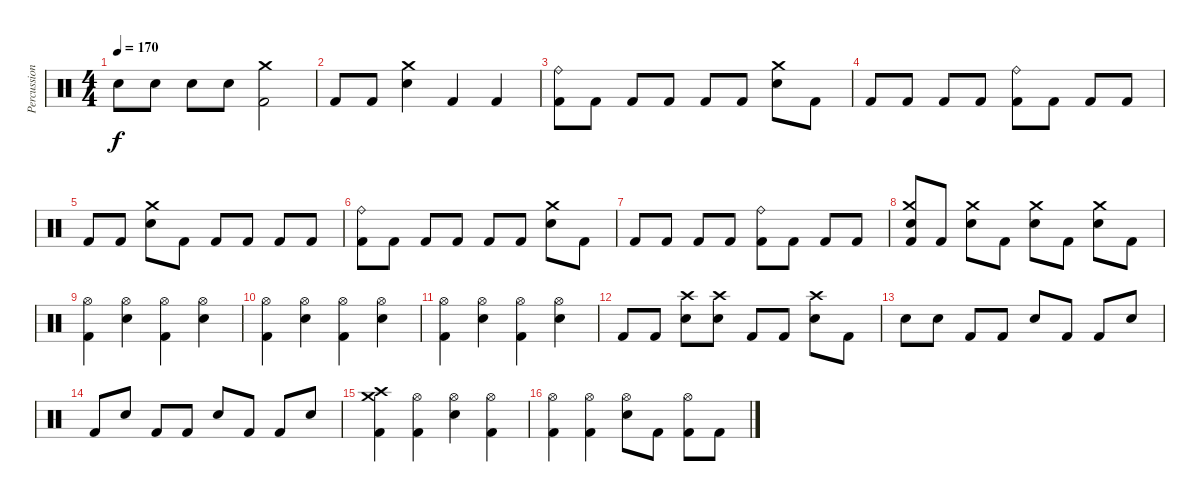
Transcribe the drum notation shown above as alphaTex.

\track ("Percussion" "Percussion") {instrument percussion}
\staff {score}
\articulation defaults
\ts (4 4)
\tempo 170
\clef neutral
\ks c "Snare (hit) 2".8{dy f} "Snare (hit) 2".8 "Snare (hit) 2".8 "Snare (hit) 2".8
("Crash medium (hit)" "Kick (hit) 2").2 |
"Kick (hit) 2".8 "Kick (hit) 2".8 ("Crash medium (hit)" "Snare (hit) 2").4 "Kick (hit) 2".4 "Kick (hit) 2".4 |
("Ride (bell)" "Kick (hit) 2").8 "Kick (hit) 2".8 "Kick (hit) 2".8 "Kick (hit) 2".8 "Kick (hit) 2".8 "Kick (hit) 2".8 ("Crash medium (hit)" "Snare (hit) 2").8 "Kick (hit) 2".8 |
"Kick (hit) 2".8 "Kick (hit) 2".8 "Kick (hit) 2".8 "Kick (hit) 2".8 ("Ride (bell)" "Kick (hit) 2").8 "Kick (hit) 2".8 "Kick (hit) 2".8 "Kick (hit) 2".8 |
"Kick (hit) 2".8 "Kick (hit) 2".8 ("Crash medium (hit)" "Snare (hit) 2").8 "Kick (hit) 2".8 "Kick (hit) 2".8 "Kick (hit) 2".8 "Kick (hit) 2".8 "Kick (hit) 2".8 |
("Ride (bell)" "Kick (hit) 2").8 "Kick (hit) 2".8 "Kick (hit) 2".8 "Kick (hit) 2".8 "Kick (hit) 2".8 "Kick (hit) 2".8 ("Crash medium (hit)" "Snare (hit) 2").8 "Kick (hit) 2".8 |
"Kick (hit) 2".8 "Kick (hit) 2".8 "Kick (hit) 2".8 "Kick (hit) 2".8 ("Ride (bell)" "Kick (hit) 2").8 "Kick (hit) 2".8 "Kick (hit) 2".8 "Kick (hit) 2".8 |
("Crash medium (hit)" "Snare (hit) 2" "Kick (hit) 2").8 "Kick (hit) 2".8 ("Crash medium (hit)" "Snare (hit) 2").8 "Kick (hit) 2".8 ("Crash medium (hit)" "Snare (hit) 2").8 "Kick (hit) 2".8 ("Crash medium (hit)" "Snare (hit) 2").8 "Kick (hit) 2".8 |
("Hi-Hat (open)" "Kick (hit) 2").4 ("Hi-Hat (open)" "Snare (hit) 2").4 ("Hi-Hat (open)" "Kick (hit) 2").4 ("Hi-Hat (open)" "Snare (hit) 2").4 |
("Hi-Hat (open)" "Kick (hit) 2").4 ("Hi-Hat (open)" "Snare (hit) 2").4 ("Hi-Hat (open)" "Kick (hit) 2").4 ("Hi-Hat (open)" "Snare (hit) 2").4 |
("Hi-Hat (open)" "Kick (hit) 2").4 ("Hi-Hat (open)" "Snare (hit) 2").4 ("Hi-Hat (open)" "Kick (hit) 2").4 ("Hi-Hat (open)" "Snare (hit) 2").4 |
"Kick (hit) 2".8 "Kick (hit) 2".8 ("Crash high (hit)" "Snare (hit) 2").8 ("Crash high (hit)" "Snare (hit) 2").8 "Kick (hit) 2".8 "Kick (hit) 2".8 ("Crash high (hit)" "Snare (hit) 2").8 "Kick (hit) 2".8 |
"Snare (hit) 2".8 "Snare (hit) 2".8 "Kick (hit) 2".8 "Kick (hit) 2".8 "Snare (hit) 2".8 "Kick (hit) 2".8 "Kick (hit) 2".8 "Snare (hit) 2".8 |
"Kick (hit) 2".8 "Snare (hit) 2".8 "Kick (hit) 2".8 "Kick (hit) 2".8 "Snare (hit) 2".8 "Kick (hit) 2".8 "Kick (hit) 2".8 "Snare (hit) 2".8 |
("Crash medium (hit)" "Crash high (hit)" "Kick (hit) 2").4 ("Hi-Hat (open)" "Kick (hit) 2").4 ("Hi-Hat (open)" "Snare (hit) 2").4 ("Hi-Hat (open)" "Kick (hit) 2").4 |
("Hi-Hat (open)" "Kick (hit) 2").4 ("Hi-Hat (open)" "Kick (hit) 2").4 ("Hi-Hat (open)" "Snare (hit) 2").8 "Kick (hit) 2".8 ("Hi-Hat (open)" "Kick (hit) 2").8 "Kick (hit) 2".8
